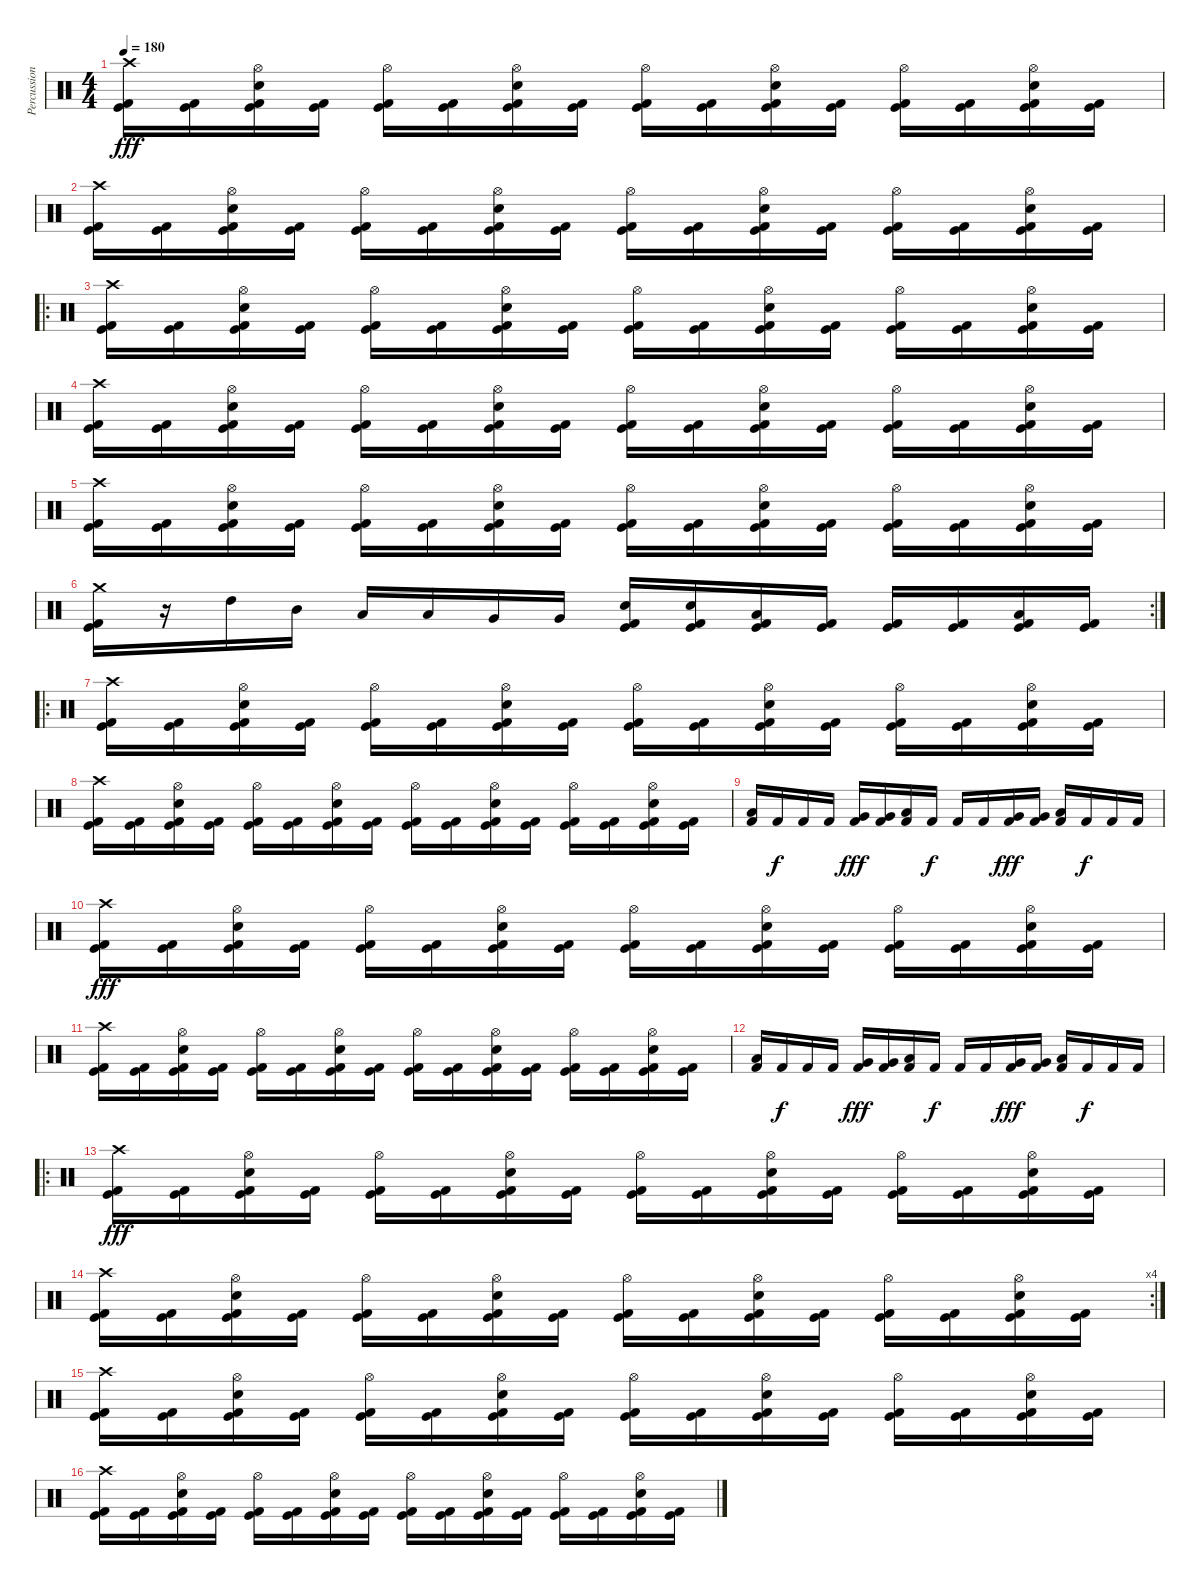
\track ("Percussion" "Percussion") {instrument percussion}
\staff {score}
\articulation defaults
\ts (4 4)
\tempo 180
\clef neutral
\ks c
("Kick (hit) 2" "Kick (hit)" "Crash high (hit)").16{dy fff} ("Kick (hit) 2" "Kick (hit)").16 ("Kick (hit) 2" "Kick (hit)" "Snare (hit) 2" "Hi-Hat (open)").16 ("Kick (hit) 2" "Kick (hit)").16 ("Kick (hit) 2" "Kick (hit)" "Hi-Hat (open)").16 ("Kick (hit) 2" "Kick (hit)").16 ("Kick (hit) 2" "Kick (hit)" "Snare (hit) 2" "Hi-Hat (open)").16 ("Kick (hit) 2" "Kick (hit)").16 ("Kick (hit) 2" "Kick (hit)" "Hi-Hat (open)").16 ("Kick (hit) 2" "Kick (hit)").16 ("Kick (hit) 2" "Kick (hit)" "Snare (hit) 2" "Hi-Hat (open)").16 ("Kick (hit) 2" "Kick (hit)").16 ("Kick (hit) 2" "Kick (hit)" "Hi-Hat (open)").16 ("Kick (hit) 2" "Kick (hit)").16 ("Kick (hit) 2" "Kick (hit)" "Snare (hit) 2" "Hi-Hat (open)").16 ("Kick (hit) 2" "Kick (hit)").16 |
("Kick (hit) 2" "Kick (hit)" "Crash high (hit)").16 ("Kick (hit) 2" "Kick (hit)").16 ("Kick (hit) 2" "Kick (hit)" "Snare (hit) 2" "Hi-Hat (open)").16 ("Kick (hit) 2" "Kick (hit)").16 ("Kick (hit) 2" "Kick (hit)" "Hi-Hat (open)").16 ("Kick (hit) 2" "Kick (hit)").16 ("Kick (hit) 2" "Kick (hit)" "Snare (hit) 2" "Hi-Hat (open)").16 ("Kick (hit) 2" "Kick (hit)").16 ("Kick (hit) 2" "Kick (hit)" "Hi-Hat (open)").16 ("Kick (hit) 2" "Kick (hit)").16 ("Kick (hit) 2" "Kick (hit)" "Snare (hit) 2" "Hi-Hat (open)").16 ("Kick (hit) 2" "Kick (hit)").16 ("Kick (hit) 2" "Kick (hit)" "Hi-Hat (open)").16 ("Kick (hit) 2" "Kick (hit)").16 ("Kick (hit) 2" "Kick (hit)" "Snare (hit) 2" "Hi-Hat (open)").16 ("Kick (hit) 2" "Kick (hit)").16 |
\ro
("Kick (hit) 2" "Kick (hit)" "Crash high (hit)").16 ("Kick (hit) 2" "Kick (hit)").16 ("Kick (hit) 2" "Kick (hit)" "Snare (hit) 2" "Hi-Hat (open)").16 ("Kick (hit) 2" "Kick (hit)").16 ("Kick (hit) 2" "Kick (hit)" "Hi-Hat (open)").16 ("Kick (hit) 2" "Kick (hit)").16 ("Kick (hit) 2" "Kick (hit)" "Snare (hit) 2" "Hi-Hat (open)").16 ("Kick (hit) 2" "Kick (hit)").16 ("Kick (hit) 2" "Kick (hit)" "Hi-Hat (open)").16 ("Kick (hit) 2" "Kick (hit)").16 ("Kick (hit) 2" "Kick (hit)" "Snare (hit) 2" "Hi-Hat (open)").16 ("Kick (hit) 2" "Kick (hit)").16 ("Kick (hit) 2" "Kick (hit)" "Hi-Hat (open)").16 ("Kick (hit) 2" "Kick (hit)").16 ("Kick (hit) 2" "Kick (hit)" "Snare (hit) 2" "Hi-Hat (open)").16 ("Kick (hit) 2" "Kick (hit)").16 |
("Kick (hit) 2" "Kick (hit)" "Crash high (hit)").16 ("Kick (hit) 2" "Kick (hit)").16 ("Kick (hit) 2" "Kick (hit)" "Snare (hit) 2" "Hi-Hat (open)").16 ("Kick (hit) 2" "Kick (hit)").16 ("Kick (hit) 2" "Kick (hit)" "Hi-Hat (open)").16 ("Kick (hit) 2" "Kick (hit)").16 ("Kick (hit) 2" "Kick (hit)" "Snare (hit) 2" "Hi-Hat (open)").16 ("Kick (hit) 2" "Kick (hit)").16 ("Kick (hit) 2" "Kick (hit)" "Hi-Hat (open)").16 ("Kick (hit) 2" "Kick (hit)").16 ("Kick (hit) 2" "Kick (hit)" "Snare (hit) 2" "Hi-Hat (open)").16 ("Kick (hit) 2" "Kick (hit)").16 ("Kick (hit) 2" "Kick (hit)" "Hi-Hat (open)").16 ("Kick (hit) 2" "Kick (hit)").16 ("Kick (hit) 2" "Kick (hit)" "Snare (hit) 2" "Hi-Hat (open)").16 ("Kick (hit) 2" "Kick (hit)").16 |
("Kick (hit) 2" "Kick (hit)" "Crash high (hit)").16 ("Kick (hit) 2" "Kick (hit)").16 ("Kick (hit) 2" "Kick (hit)" "Snare (hit) 2" "Hi-Hat (open)").16 ("Kick (hit) 2" "Kick (hit)").16 ("Kick (hit) 2" "Kick (hit)" "Hi-Hat (open)").16 ("Kick (hit) 2" "Kick (hit)").16 ("Kick (hit) 2" "Kick (hit)" "Snare (hit) 2" "Hi-Hat (open)").16 ("Kick (hit) 2" "Kick (hit)").16 ("Kick (hit) 2" "Kick (hit)" "Hi-Hat (open)").16 ("Kick (hit) 2" "Kick (hit)").16 ("Kick (hit) 2" "Kick (hit)" "Snare (hit) 2" "Hi-Hat (open)").16 ("Kick (hit) 2" "Kick (hit)").16 ("Kick (hit) 2" "Kick (hit)" "Hi-Hat (open)").16 ("Kick (hit) 2" "Kick (hit)").16 ("Kick (hit) 2" "Kick (hit)" "Snare (hit) 2" "Hi-Hat (open)").16 ("Kick (hit) 2" "Kick (hit)").16 |
\rc 2
("Kick (hit) 2" "Kick (hit)" "Crash medium (hit)").16 r.16 "High Tom (hit)".16 "Mid Tom (hit)".16 "Low Tom (hit)".16 "Low Tom (hit)".16 "Very Low Tom (hit)".16 "Very Low Tom (hit)".16 ("Kick (hit) 2" "Kick (hit)" "Snare (hit) 2").16 ("Kick (hit) 2" "Kick (hit)" "Snare (hit) 2").16 ("Kick (hit) 2" "Kick (hit)" "Low Tom (hit)").16 ("Kick (hit) 2" "Kick (hit)").16 ("Kick (hit) 2" "Kick (hit)").16 ("Kick (hit) 2" "Kick (hit)").16 ("Kick (hit) 2" "Kick (hit)" "Low Floor Tom (hit)").16 ("Kick (hit) 2" "Kick (hit)").16 |
\ro
("Kick (hit) 2" "Kick (hit)" "Crash high (hit)").16 ("Kick (hit) 2" "Kick (hit)").16 ("Kick (hit) 2" "Kick (hit)" "Snare (hit) 2" "Hi-Hat (open)").16 ("Kick (hit) 2" "Kick (hit)").16 ("Kick (hit) 2" "Kick (hit)" "Hi-Hat (open)").16 ("Kick (hit) 2" "Kick (hit)").16 ("Kick (hit) 2" "Kick (hit)" "Snare (hit) 2" "Hi-Hat (open)").16 ("Kick (hit) 2" "Kick (hit)").16 ("Kick (hit) 2" "Kick (hit)" "Hi-Hat (open)").16 ("Kick (hit) 2" "Kick (hit)").16 ("Kick (hit) 2" "Kick (hit)" "Snare (hit) 2" "Hi-Hat (open)").16 ("Kick (hit) 2" "Kick (hit)").16 ("Kick (hit) 2" "Kick (hit)" "Hi-Hat (open)").16 ("Kick (hit) 2" "Kick (hit)").16 ("Kick (hit) 2" "Kick (hit)" "Snare (hit) 2" "Hi-Hat (open)").16 ("Kick (hit) 2" "Kick (hit)").16 |
("Kick (hit) 2" "Kick (hit)" "Crash high (hit)").16 ("Kick (hit) 2" "Kick (hit)").16 ("Kick (hit) 2" "Kick (hit)" "Snare (hit) 2" "Hi-Hat (open)").16 ("Kick (hit) 2" "Kick (hit)").16 ("Kick (hit) 2" "Kick (hit)" "Hi-Hat (open)").16 ("Kick (hit) 2" "Kick (hit)").16 ("Kick (hit) 2" "Kick (hit)" "Snare (hit) 2" "Hi-Hat (open)").16 ("Kick (hit) 2" "Kick (hit)").16 ("Kick (hit) 2" "Kick (hit)" "Hi-Hat (open)").16 ("Kick (hit) 2" "Kick (hit)").16 ("Kick (hit) 2" "Kick (hit)" "Snare (hit) 2" "Hi-Hat (open)").16 ("Kick (hit) 2" "Kick (hit)").16 ("Kick (hit) 2" "Kick (hit)" "Hi-Hat (open)").16 ("Kick (hit) 2" "Kick (hit)").16 ("Kick (hit) 2" "Kick (hit)" "Snare (hit) 2" "Hi-Hat (open)").16 ("Kick (hit) 2" "Kick (hit)").16 |
("Kick (hit) 2" "Low Tom (hit)").16 "Kick (hit) 2".16{dy f} "Kick (hit) 2".16 "Kick (hit) 2".16 ("Kick (hit) 2" "Very Low Tom (hit)").16{dy fff} ("Kick (hit) 2" "Very Low Tom (hit)").16 ("Kick (hit) 2" "Low Tom (hit)").16 "Kick (hit) 2".16{dy f} "Kick (hit) 2".16 "Kick (hit) 2".16 ("Kick (hit) 2" "Very Low Tom (hit)").16{dy fff} ("Kick (hit) 2" "Very Low Tom (hit)").16 ("Kick (hit) 2" "Low Tom (hit)").16 "Kick (hit) 2".16{dy f} "Kick (hit) 2".16 "Kick (hit) 2".16 |
("Kick (hit) 2" "Kick (hit)" "Crash high (hit)").16{dy fff} ("Kick (hit) 2" "Kick (hit)").16 ("Kick (hit) 2" "Kick (hit)" "Snare (hit) 2" "Hi-Hat (open)").16 ("Kick (hit) 2" "Kick (hit)").16 ("Kick (hit) 2" "Kick (hit)" "Hi-Hat (open)").16 ("Kick (hit) 2" "Kick (hit)").16 ("Kick (hit) 2" "Kick (hit)" "Snare (hit) 2" "Hi-Hat (open)").16 ("Kick (hit) 2" "Kick (hit)").16 ("Kick (hit) 2" "Kick (hit)" "Hi-Hat (open)").16 ("Kick (hit) 2" "Kick (hit)").16 ("Kick (hit) 2" "Kick (hit)" "Snare (hit) 2" "Hi-Hat (open)").16 ("Kick (hit) 2" "Kick (hit)").16 ("Kick (hit) 2" "Kick (hit)" "Hi-Hat (open)").16 ("Kick (hit) 2" "Kick (hit)").16 ("Kick (hit) 2" "Kick (hit)" "Snare (hit) 2" "Hi-Hat (open)").16 ("Kick (hit) 2" "Kick (hit)").16 |
("Kick (hit) 2" "Kick (hit)" "Crash high (hit)").16 ("Kick (hit) 2" "Kick (hit)").16 ("Kick (hit) 2" "Kick (hit)" "Snare (hit) 2" "Hi-Hat (open)").16 ("Kick (hit) 2" "Kick (hit)").16 ("Kick (hit) 2" "Kick (hit)" "Hi-Hat (open)").16 ("Kick (hit) 2" "Kick (hit)").16 ("Kick (hit) 2" "Kick (hit)" "Snare (hit) 2" "Hi-Hat (open)").16 ("Kick (hit) 2" "Kick (hit)").16 ("Kick (hit) 2" "Kick (hit)" "Hi-Hat (open)").16 ("Kick (hit) 2" "Kick (hit)").16 ("Kick (hit) 2" "Kick (hit)" "Snare (hit) 2" "Hi-Hat (open)").16 ("Kick (hit) 2" "Kick (hit)").16 ("Kick (hit) 2" "Kick (hit)" "Hi-Hat (open)").16 ("Kick (hit) 2" "Kick (hit)").16 ("Kick (hit) 2" "Kick (hit)" "Snare (hit) 2" "Hi-Hat (open)").16 ("Kick (hit) 2" "Kick (hit)").16 |
("Kick (hit) 2" "Low Tom (hit)").16 "Kick (hit) 2".16{dy f} "Kick (hit) 2".16 "Kick (hit) 2".16 ("Kick (hit) 2" "Very Low Tom (hit)").16{dy fff} ("Kick (hit) 2" "Very Low Tom (hit)").16 ("Kick (hit) 2" "Low Tom (hit)").16 "Kick (hit) 2".16{dy f} "Kick (hit) 2".16 "Kick (hit) 2".16 ("Kick (hit) 2" "Very Low Tom (hit)").16{dy fff} ("Kick (hit) 2" "Very Low Tom (hit)").16 ("Kick (hit) 2" "Low Tom (hit)").16 "Kick (hit) 2".16{dy f} "Kick (hit) 2".16 "Kick (hit) 2".16 |
\ro
("Kick (hit) 2" "Kick (hit)" "Crash high (hit)").16{dy fff} ("Kick (hit) 2" "Kick (hit)").16 ("Kick (hit) 2" "Kick (hit)" "Snare (hit) 2" "Hi-Hat (open)").16 ("Kick (hit) 2" "Kick (hit)").16 ("Kick (hit) 2" "Kick (hit)" "Hi-Hat (open)").16 ("Kick (hit) 2" "Kick (hit)").16 ("Kick (hit) 2" "Kick (hit)" "Snare (hit) 2" "Hi-Hat (open)").16 ("Kick (hit) 2" "Kick (hit)").16 ("Kick (hit) 2" "Kick (hit)" "Hi-Hat (open)").16 ("Kick (hit) 2" "Kick (hit)").16 ("Kick (hit) 2" "Kick (hit)" "Snare (hit) 2" "Hi-Hat (open)").16 ("Kick (hit) 2" "Kick (hit)").16 ("Kick (hit) 2" "Kick (hit)" "Hi-Hat (open)").16 ("Kick (hit) 2" "Kick (hit)").16 ("Kick (hit) 2" "Kick (hit)" "Snare (hit) 2" "Hi-Hat (open)").16 ("Kick (hit) 2" "Kick (hit)").16 |
\rc 4
("Kick (hit) 2" "Kick (hit)" "Crash high (hit)").16 ("Kick (hit) 2" "Kick (hit)").16 ("Kick (hit) 2" "Kick (hit)" "Snare (hit) 2" "Hi-Hat (open)").16 ("Kick (hit) 2" "Kick (hit)").16 ("Kick (hit) 2" "Kick (hit)" "Hi-Hat (open)").16 ("Kick (hit) 2" "Kick (hit)").16 ("Kick (hit) 2" "Kick (hit)" "Snare (hit) 2" "Hi-Hat (open)").16 ("Kick (hit) 2" "Kick (hit)").16 ("Kick (hit) 2" "Kick (hit)" "Hi-Hat (open)").16 ("Kick (hit) 2" "Kick (hit)").16 ("Kick (hit) 2" "Kick (hit)" "Snare (hit) 2" "Hi-Hat (open)").16 ("Kick (hit) 2" "Kick (hit)").16 ("Kick (hit) 2" "Kick (hit)" "Hi-Hat (open)").16 ("Kick (hit) 2" "Kick (hit)").16 ("Kick (hit) 2" "Kick (hit)" "Snare (hit) 2" "Hi-Hat (open)").16 ("Kick (hit) 2" "Kick (hit)").16 |
("Kick (hit) 2" "Kick (hit)" "Crash high (hit)").16 ("Kick (hit) 2" "Kick (hit)").16 ("Kick (hit) 2" "Kick (hit)" "Snare (hit) 2" "Hi-Hat (open)").16 ("Kick (hit) 2" "Kick (hit)").16 ("Kick (hit) 2" "Kick (hit)" "Hi-Hat (open)").16 ("Kick (hit) 2" "Kick (hit)").16 ("Kick (hit) 2" "Kick (hit)" "Snare (hit) 2" "Hi-Hat (open)").16 ("Kick (hit) 2" "Kick (hit)").16 ("Kick (hit) 2" "Kick (hit)" "Hi-Hat (open)").16 ("Kick (hit) 2" "Kick (hit)").16 ("Kick (hit) 2" "Kick (hit)" "Snare (hit) 2" "Hi-Hat (open)").16 ("Kick (hit) 2" "Kick (hit)").16 ("Kick (hit) 2" "Kick (hit)" "Hi-Hat (open)").16 ("Kick (hit) 2" "Kick (hit)").16 ("Kick (hit) 2" "Kick (hit)" "Snare (hit) 2" "Hi-Hat (open)").16 ("Kick (hit) 2" "Kick (hit)").16 |
("Kick (hit) 2" "Kick (hit)" "Crash high (hit)").16 ("Kick (hit) 2" "Kick (hit)").16 ("Kick (hit) 2" "Kick (hit)" "Snare (hit) 2" "Hi-Hat (open)").16 ("Kick (hit) 2" "Kick (hit)").16 ("Kick (hit) 2" "Kick (hit)" "Hi-Hat (open)").16 ("Kick (hit) 2" "Kick (hit)").16 ("Kick (hit) 2" "Kick (hit)" "Snare (hit) 2" "Hi-Hat (open)").16 ("Kick (hit) 2" "Kick (hit)").16 ("Kick (hit) 2" "Kick (hit)" "Hi-Hat (open)").16 ("Kick (hit) 2" "Kick (hit)").16 ("Kick (hit) 2" "Kick (hit)" "Snare (hit) 2" "Hi-Hat (open)").16 ("Kick (hit) 2" "Kick (hit)").16 ("Kick (hit) 2" "Kick (hit)" "Hi-Hat (open)").16 ("Kick (hit) 2" "Kick (hit)").16 ("Kick (hit) 2" "Kick (hit)" "Snare (hit) 2" "Hi-Hat (open)").16 ("Kick (hit) 2" "Kick (hit)").16
